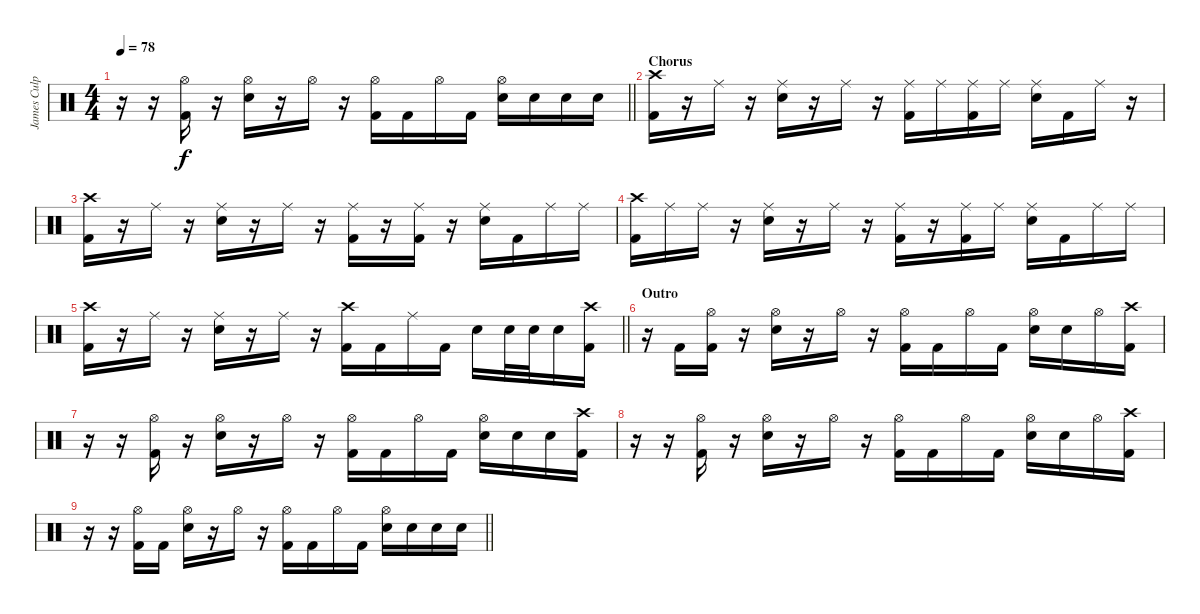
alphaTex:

\track ("James Culpepper" "James Culp") {instrument percussion}
\staff {score}
\articulation defaults
\ts (4 4)
\tempo 78
\clef neutral
\barLineRight lightlight
\ks c
r.16{dy f} r.16 ("Hi-Hat (open)" "Kick (hit) 2").16 r.16 ("Hi-Hat (open)" "Snare (hit) 2").16 r.16 "Hi-Hat (open)".16 r.16 ("Hi-Hat (open)" "Kick (hit) 2").16 "Kick (hit) 2".16 "Hi-Hat (open)".16 "Kick (hit) 2".16 ("Hi-Hat (open)" "Snare (hit) 2").16 "Snare (hit) 2".16 "Snare (hit) 2".16 "Snare (hit) 2".16 |
\section ("" "Chorus")
("Crash high (hit)" "Kick (hit) 2").16 r.16 "Ride (middle)".16 r.16 ("Ride (middle)" "Snare (hit) 2").16 r.16 "Ride (middle)".16 r.16 ("Ride (middle)" "Kick (hit) 2").16 "Ride (middle)".16 ("Ride (middle)" "Kick (hit) 2").16 "Ride (middle)".16 ("Ride (middle)" "Snare (hit) 2").16 "Kick (hit) 2".16 "Ride (middle)".16 r.16 |
("Crash high (hit)" "Kick (hit) 2").16 r.16 "Ride (middle)".16 r.16 ("Ride (middle)" "Snare (hit) 2").16 r.16 "Ride (middle)".16 r.16 ("Ride (middle)" "Kick (hit) 2").16 r.16 ("Ride (middle)" "Kick (hit) 2").16 r.16 ("Ride (middle)" "Snare (hit) 2").16 "Kick (hit) 2".16 "Ride (middle)".16 "Ride (middle)".16 |
("Crash high (hit)" "Kick (hit) 2").16 "Ride (middle)".16 "Ride (middle)".16 r.16 ("Ride (middle)" "Snare (hit) 2").16 r.16 "Ride (middle)".16 r.16 ("Ride (middle)" "Kick (hit) 2").16 r.16 ("Ride (middle)" "Kick (hit) 2").16 "Ride (middle)".16 ("Ride (middle)" "Snare (hit) 2").16 "Kick (hit) 2".16 "Ride (middle)".16 "Ride (middle)".16 |
\barLineRight lightlight
("Crash high (hit)" "Kick (hit) 2").16 r.16 "Ride (middle)".16 r.16 ("Ride (middle)" "Snare (hit) 2").16 r.16 "Ride (middle)".16 r.16 ("Crash high (hit)" "Kick (hit) 2").16 "Kick (hit) 2".16 "Ride (middle)".16 "Kick (hit) 2".16 "Snare (hit) 2".16 "Snare (hit) 2".32 "Snare (hit) 2".32 "Snare (hit) 2".16 ("Crash high (hit)" "Kick (hit) 2").16 |
\section ("" "Outro")
r.16 "Kick (hit) 2".16 ("Hi-Hat (open)" "Kick (hit) 2").16 r.16 ("Hi-Hat (open)" "Snare (hit) 2").16 r.16 "Hi-Hat (open)".16 r.16 ("Hi-Hat (open)" "Kick (hit) 2").16 "Kick (hit) 2".16 "Hi-Hat (open)".16 "Kick (hit) 2".16 ("Hi-Hat (open)" "Snare (hit) 2").16 "Snare (hit) 2".16 "Hi-Hat (open)".16 ("Crash high (hit)" "Kick (hit) 2").16 |
r.16 r.16 ("Hi-Hat (open)" "Kick (hit) 2").16 r.16 ("Hi-Hat (open)" "Snare (hit) 2").16 r.16 "Hi-Hat (open)".16 r.16 ("Hi-Hat (open)" "Kick (hit) 2").16 "Kick (hit) 2".16 "Hi-Hat (open)".16 "Kick (hit) 2".16 ("Hi-Hat (open)" "Snare (hit) 2").16 "Snare (hit) 2".16 "Snare (hit) 2".16 ("Crash high (hit)" "Kick (hit) 2").16 |
r.16 r.16 ("Hi-Hat (open)" "Kick (hit) 2").16 r.16 ("Hi-Hat (open)" "Snare (hit) 2").16 r.16 "Hi-Hat (open)".16 r.16 ("Hi-Hat (open)" "Kick (hit) 2").16 "Kick (hit) 2".16 "Hi-Hat (open)".16 "Kick (hit) 2".16 ("Hi-Hat (open)" "Snare (hit) 2").16 "Snare (hit) 2".16 "Hi-Hat (open)".16 ("Crash high (hit)" "Kick (hit) 2").16 |
\barLineRight lightlight
r.16 r.16 ("Hi-Hat (open)" "Kick (hit) 2").16 "Kick (hit) 2".16 ("Hi-Hat (open)" "Snare (hit) 2").16 r.16 "Hi-Hat (open)".16 r.16 ("Hi-Hat (open)" "Kick (hit) 2").16 "Kick (hit) 2".16 "Hi-Hat (open)".16 "Kick (hit) 2".16 ("Hi-Hat (open)" "Snare (hit) 2").16 "Snare (hit) 2".16 "Snare (hit) 2".16 "Snare (hit) 2".16
